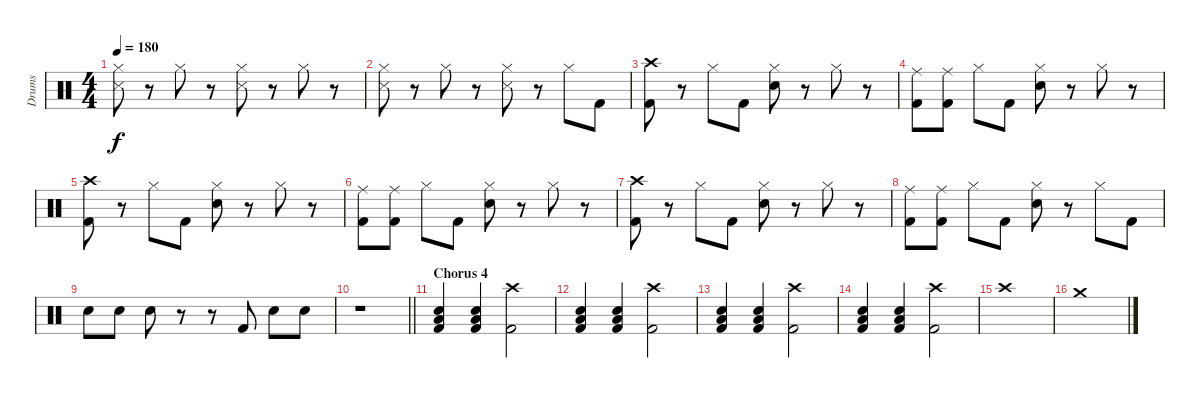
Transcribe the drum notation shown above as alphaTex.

\track ("Drums" "Drums") {instrument percussion}
\staff {score}
\articulation defaults
\ts (4 4)
\tempo 180
\clef neutral
\ks c
("Hi-Hat (closed)" "Snare (side stick) 3").8{dy f} r.8 "Hi-Hat (closed)".8 r.8 ("Hi-Hat (closed)" "Snare (side stick) 3").8 r.8 "Hi-Hat (closed)".8 r.8 |
("Hi-Hat (closed)" "Snare (side stick) 3").8 r.8 "Hi-Hat (closed)".8 r.8 ("Hi-Hat (closed)" "Snare (side stick) 3").8 r.8 "Hi-Hat (closed)".8 "Kick (hit) 2".8 |
("Crash high (hit)" "Kick (hit) 2").8 r.8 "Hi-Hat (closed)".8 "Kick (hit) 2".8 ("Hi-Hat (closed)" "Snare (hit) 2").8 r.8 "Hi-Hat (closed)".8 r.8 |
("Ride (middle)" "Kick (hit) 2").8 ("Ride (middle)" "Kick (hit) 2").8 "Hi-Hat (closed)".8 "Kick (hit) 2".8 ("Hi-Hat (closed)" "Snare (hit) 2").8 r.8 "Hi-Hat (closed)".8 r.8 |
("Crash high (hit)" "Kick (hit) 2").8 r.8 "Hi-Hat (closed)".8 "Kick (hit) 2".8 ("Hi-Hat (closed)" "Snare (hit) 2").8 r.8 "Hi-Hat (closed)".8 r.8 |
("Ride (middle)" "Kick (hit) 2").8 ("Ride (middle)" "Kick (hit) 2").8 "Hi-Hat (closed)".8 "Kick (hit) 2".8 ("Hi-Hat (closed)" "Snare (hit) 2").8 r.8 "Hi-Hat (closed)".8 r.8 |
("Crash high (hit)" "Kick (hit) 2").8 r.8 "Hi-Hat (closed)".8 "Kick (hit) 2".8 ("Hi-Hat (closed)" "Snare (hit) 2").8 r.8 "Hi-Hat (closed)".8 r.8 |
("Ride (middle)" "Kick (hit) 2").8 ("Ride (middle)" "Kick (hit) 2").8 "Hi-Hat (closed)".8 "Kick (hit) 2".8 ("Hi-Hat (closed)" "Snare (hit) 2").8 r.8 "Hi-Hat (closed)".8 "Kick (hit) 2".8 |
"Snare (hit) 2".8 "Snare (hit) 2".8 "Snare (hit) 2".8 r.8 r.8 "Kick (hit) 2".8 "Snare (hit) 2".8 "Snare (hit) 2".8 |
\barLineRight lightlight
r.1 |
\section ("" "Chorus 4")
("Low Tom (hit)" "Snare (hit) 2" "Kick (hit) 2").4 ("Low Tom (hit)" "Snare (hit) 2" "Kick (hit) 2").4 ("Crash high (hit)" "Kick (hit) 2").2 |
("Low Tom (hit)" "Snare (hit) 2" "Kick (hit) 2").4 ("Low Tom (hit)" "Snare (hit) 2" "Kick (hit) 2").4 ("Crash high (hit)" "Kick (hit) 2").2 |
("Low Tom (hit)" "Snare (hit) 2" "Kick (hit) 2").4 ("Low Tom (hit)" "Snare (hit) 2" "Kick (hit) 2").4 ("Crash high (hit)" "Kick (hit) 2").2 |
("Low Tom (hit)" "Snare (hit) 2" "Kick (hit) 2").4 ("Low Tom (hit)" "Snare (hit) 2" "Kick (hit) 2").4 ("Crash high (hit)" "Kick (hit) 2").2 |
"Crash high (hit)".1 |
"Crash medium (hit)".1
